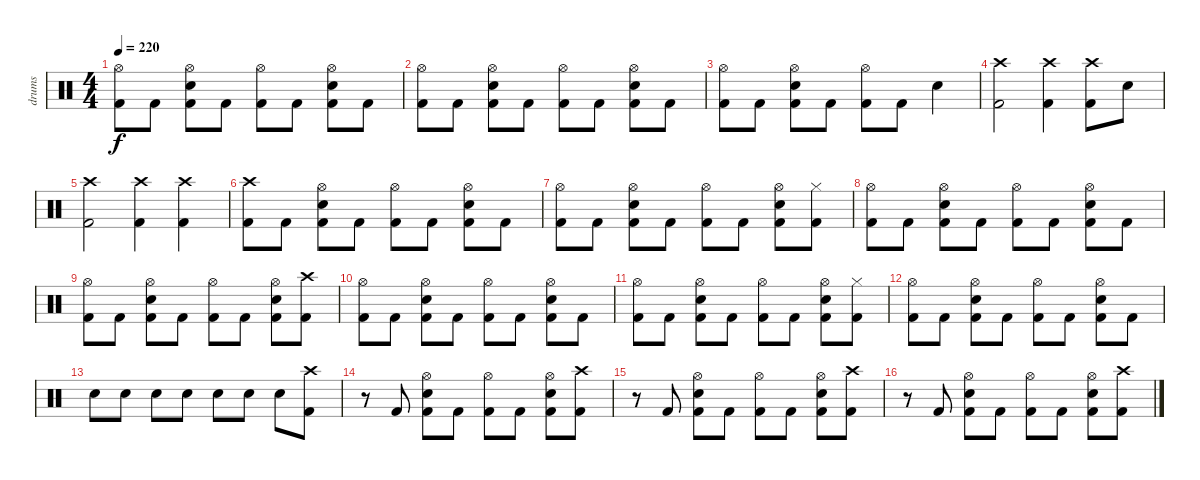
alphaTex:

\track ("drums" "drums") {instrument percussion}
\staff {score}
\articulation defaults
\ts (4 4)
\tempo 220
\clef neutral
\ks c
("Hi-Hat (open)" "Kick (hit) 2").8{dy f} "Kick (hit) 2".8 ("Hi-Hat (open)" "Electric Snare (hit)" "Kick (hit) 2").8 "Kick (hit) 2".8 ("Hi-Hat (open)" "Kick (hit) 2").8 "Kick (hit) 2".8 ("Hi-Hat (open)" "Electric Snare (hit)" "Kick (hit) 2").8 "Kick (hit) 2".8 |
("Hi-Hat (open)" "Kick (hit) 2").8 "Kick (hit) 2".8 ("Hi-Hat (open)" "Electric Snare (hit)" "Kick (hit) 2").8 "Kick (hit) 2".8 ("Hi-Hat (open)" "Kick (hit) 2").8 "Kick (hit) 2".8 ("Hi-Hat (open)" "Electric Snare (hit)" "Kick (hit) 2").8 "Kick (hit) 2".8 |
("Hi-Hat (open)" "Kick (hit) 2").8 "Kick (hit) 2".8 ("Hi-Hat (open)" "Electric Snare (hit)" "Kick (hit) 2").8 "Kick (hit) 2".8 ("Hi-Hat (open)" "Kick (hit) 2").8 "Kick (hit) 2".8 "Electric Snare (hit)".4 |
("Crash high (hit)" "Kick (hit) 2").2 ("Crash high (hit)" "Kick (hit) 2").4 ("Crash high (hit)" "Kick (hit) 2").8 "Electric Snare (hit)".8 |
("Crash high (hit)" "Kick (hit) 2").2 ("Crash high (hit)" "Kick (hit) 2").4 ("Crash high (hit)" "Kick (hit) 2").4 |
("Crash high (hit)" "Kick (hit) 2").8 "Kick (hit) 2".8 ("Hi-Hat (open)" "Electric Snare (hit)" "Kick (hit) 2").8 "Kick (hit) 2".8 ("Hi-Hat (open)" "Kick (hit) 2").8 "Kick (hit) 2".8 ("Hi-Hat (open)" "Electric Snare (hit)" "Kick (hit) 2").8 "Kick (hit) 2".8 |
("Hi-Hat (open)" "Kick (hit) 2").8 "Kick (hit) 2".8 ("Hi-Hat (open)" "Electric Snare (hit)" "Kick (hit) 2").8 "Kick (hit) 2".8 ("Hi-Hat (open)" "Kick (hit) 2").8 "Kick (hit) 2".8 ("Hi-Hat (open)" "Electric Snare (hit)" "Kick (hit) 2").8 ("Hi-Hat (closed)" "Kick (hit) 2").8 |
("Hi-Hat (open)" "Kick (hit) 2").8 "Kick (hit) 2".8 ("Hi-Hat (open)" "Electric Snare (hit)" "Kick (hit) 2").8 "Kick (hit) 2".8 ("Hi-Hat (open)" "Kick (hit) 2").8 "Kick (hit) 2".8 ("Hi-Hat (open)" "Electric Snare (hit)" "Kick (hit) 2").8 "Kick (hit) 2".8 |
("Hi-Hat (open)" "Kick (hit) 2").8 "Kick (hit) 2".8 ("Hi-Hat (open)" "Electric Snare (hit)" "Kick (hit) 2").8 "Kick (hit) 2".8 ("Hi-Hat (open)" "Kick (hit) 2").8 "Kick (hit) 2".8 ("Hi-Hat (open)" "Electric Snare (hit)" "Kick (hit) 2").8 ("Crash high (hit)" "Kick (hit) 2").8 |
("Hi-Hat (open)" "Kick (hit) 2").8 "Kick (hit) 2".8 ("Hi-Hat (open)" "Electric Snare (hit)" "Kick (hit) 2").8 "Kick (hit) 2".8 ("Hi-Hat (open)" "Kick (hit) 2").8 "Kick (hit) 2".8 ("Hi-Hat (open)" "Electric Snare (hit)" "Kick (hit) 2").8 "Kick (hit) 2".8 |
("Hi-Hat (open)" "Kick (hit) 2").8 "Kick (hit) 2".8 ("Hi-Hat (open)" "Electric Snare (hit)" "Kick (hit) 2").8 "Kick (hit) 2".8 ("Hi-Hat (open)" "Kick (hit) 2").8 "Kick (hit) 2".8 ("Hi-Hat (open)" "Electric Snare (hit)" "Kick (hit) 2").8 ("Hi-Hat (closed)" "Kick (hit) 2").8 |
("Hi-Hat (open)" "Kick (hit) 2").8 "Kick (hit) 2".8 ("Hi-Hat (open)" "Electric Snare (hit)" "Kick (hit) 2").8 "Kick (hit) 2".8 ("Hi-Hat (open)" "Kick (hit) 2").8 "Kick (hit) 2".8 ("Hi-Hat (open)" "Electric Snare (hit)" "Kick (hit) 2").8 "Kick (hit) 2".8 |
"Electric Snare (hit)".8 "Electric Snare (hit)".8 "Electric Snare (hit)".8 "Electric Snare (hit)".8 "Electric Snare (hit)".8 "Electric Snare (hit)".8 "Electric Snare (hit)".8 ("Crash high (hit)" "Kick (hit) 2").8 |
r.8 "Kick (hit) 2".8 ("Hi-Hat (open)" "Electric Snare (hit)" "Kick (hit) 2").8 "Kick (hit) 2".8 ("Hi-Hat (open)" "Kick (hit) 2").8 "Kick (hit) 2".8 ("Hi-Hat (open)" "Electric Snare (hit)" "Kick (hit) 2").8 ("Crash high (hit)" "Kick (hit) 2").8 |
r.8 "Kick (hit) 2".8 ("Hi-Hat (open)" "Electric Snare (hit)" "Kick (hit) 2").8 "Kick (hit) 2".8 ("Hi-Hat (open)" "Kick (hit) 2").8 "Kick (hit) 2".8 ("Hi-Hat (open)" "Electric Snare (hit)" "Kick (hit) 2").8 ("Crash high (hit)" "Kick (hit) 2").8 |
r.8 "Kick (hit) 2".8 ("Hi-Hat (open)" "Electric Snare (hit)" "Kick (hit) 2").8 "Kick (hit) 2".8 ("Hi-Hat (open)" "Kick (hit) 2").8 "Kick (hit) 2".8 ("Hi-Hat (open)" "Electric Snare (hit)" "Kick (hit) 2").8 ("Crash high (hit)" "Kick (hit) 2").8
